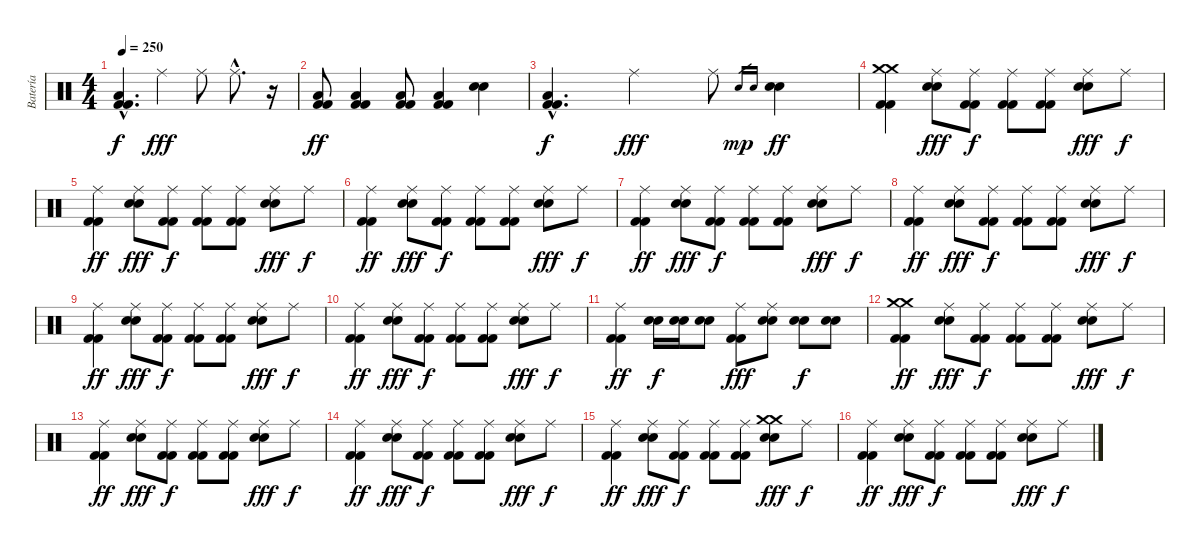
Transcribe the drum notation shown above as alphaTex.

\track ("Batería" "Batería") {instrument percussion}
\staff {score}
\articulation defaults
\ts (4 4)
\tempo 250
\clef neutral
\ks c
("Low Tom (hit)"{hac} "Kick (hit) 2"{hac} "Kick (hit) 2"{hac}).4{d dy f} "Ride (middle)".4{dy fff} "Ride (middle)".8 "Ride (middle)"{hac}.8{d} r.16 |
("Low Tom (hit)" "Kick (hit) 2" "Kick (hit) 2").8{dy ff} ("Low Tom (hit)" "Kick (hit) 2" "Kick (hit) 2").4 ("Low Tom (hit)" "Kick (hit) 2" "Kick (hit) 2").8 ("Low Tom (hit)" "Kick (hit) 2" "Kick (hit) 2").4 ("Electric Snare (hit)" "Electric Snare (hit)").4 |
("Low Tom (hit)"{hac} "Kick (hit) 2"{hac} "Kick (hit) 2"{hac}).4{d dy f} "Ride (middle)".4{dy fff} "Ride (middle)".8 "Electric Snare (hit)".16{gr dy mp} "Electric Snare (hit)".16{gr} ("Electric Snare (hit)" "Electric Snare (hit)").4{dy ff} |
("Crash medium (hit)" "Crash medium (hit)" "Kick (hit) 2" "Kick (hit) 2").4 ("Ride (middle)" "Electric Snare (hit)" "Electric Snare (hit)").8{dy fff} ("Ride (middle)" "Kick (hit) 2" "Kick (hit) 2").8{dy f} ("Ride (middle)" "Kick (hit) 2" "Kick (hit) 2").8 ("Ride (middle)" "Kick (hit) 2" "Kick (hit) 2").8 ("Ride (middle)" "Electric Snare (hit)" "Electric Snare (hit)").8{dy fff} "Ride (middle)".8{dy f} |
("Ride (middle)" "Kick (hit) 2" "Kick (hit) 2").4{dy ff} ("Ride (middle)" "Electric Snare (hit)" "Electric Snare (hit)").8{dy fff} ("Ride (middle)" "Kick (hit) 2" "Kick (hit) 2").8{dy f} ("Ride (middle)" "Kick (hit) 2" "Kick (hit) 2").8 ("Ride (middle)" "Kick (hit) 2" "Kick (hit) 2").8 ("Ride (middle)" "Electric Snare (hit)" "Electric Snare (hit)").8{dy fff} "Ride (middle)".8{dy f} |
("Ride (middle)" "Kick (hit) 2" "Kick (hit) 2").4{dy ff} ("Ride (middle)" "Electric Snare (hit)" "Electric Snare (hit)").8{dy fff} ("Ride (middle)" "Kick (hit) 2" "Kick (hit) 2").8{dy f} ("Ride (middle)" "Kick (hit) 2" "Kick (hit) 2").8 ("Ride (middle)" "Kick (hit) 2" "Kick (hit) 2").8 ("Ride (middle)" "Electric Snare (hit)" "Electric Snare (hit)").8{dy fff} "Ride (middle)".8{dy f} |
("Ride (middle)" "Kick (hit) 2" "Kick (hit) 2").4{dy ff} ("Ride (middle)" "Electric Snare (hit)" "Electric Snare (hit)").8{dy fff} ("Ride (middle)" "Kick (hit) 2" "Kick (hit) 2").8{dy f} ("Ride (middle)" "Kick (hit) 2" "Kick (hit) 2").8 ("Ride (middle)" "Kick (hit) 2" "Kick (hit) 2").8 ("Ride (middle)" "Electric Snare (hit)" "Electric Snare (hit)").8{dy fff} "Ride (middle)".8{dy f} |
("Ride (middle)" "Kick (hit) 2" "Kick (hit) 2").4{dy ff} ("Ride (middle)" "Electric Snare (hit)" "Electric Snare (hit)").8{dy fff} ("Ride (middle)" "Kick (hit) 2" "Kick (hit) 2").8{dy f} ("Ride (middle)" "Kick (hit) 2" "Kick (hit) 2").8 ("Ride (middle)" "Kick (hit) 2" "Kick (hit) 2").8 ("Ride (middle)" "Electric Snare (hit)" "Electric Snare (hit)").8{dy fff} "Ride (middle)".8{dy f} |
("Ride (middle)" "Kick (hit) 2" "Kick (hit) 2").4{dy ff} ("Ride (middle)" "Electric Snare (hit)" "Electric Snare (hit)").8{dy fff} ("Ride (middle)" "Kick (hit) 2" "Kick (hit) 2").8{dy f} ("Ride (middle)" "Kick (hit) 2" "Kick (hit) 2").8 ("Ride (middle)" "Kick (hit) 2" "Kick (hit) 2").8 ("Ride (middle)" "Electric Snare (hit)" "Electric Snare (hit)").8{dy fff} "Ride (middle)".8{dy f} |
("Ride (middle)" "Kick (hit) 2" "Kick (hit) 2").4{dy ff} ("Ride (middle)" "Electric Snare (hit)" "Electric Snare (hit)").8{dy fff} ("Ride (middle)" "Kick (hit) 2" "Kick (hit) 2").8{dy f} ("Ride (middle)" "Kick (hit) 2" "Kick (hit) 2").8 ("Ride (middle)" "Kick (hit) 2" "Kick (hit) 2").8 ("Ride (middle)" "Electric Snare (hit)" "Electric Snare (hit)").8{dy fff} "Ride (middle)".8{dy f} |
("Ride (middle)" "Kick (hit) 2" "Kick (hit) 2").4{dy ff} ("Electric Snare (hit)" "Electric Snare (hit)").16{dy f} ("Electric Snare (hit)" "Electric Snare (hit)").16 ("Electric Snare (hit)" "Electric Snare (hit)").8 ("Ride (middle)" "Kick (hit) 2" "Kick (hit) 2").8{dy fff} ("Ride (middle)" "Electric Snare (hit)" "Electric Snare (hit)").8 ("Electric Snare (hit)" "Electric Snare (hit)").8{dy f} ("Electric Snare (hit)" "Electric Snare (hit)").8 |
("Crash medium (hit)" "Crash medium (hit)" "Kick (hit) 2" "Kick (hit) 2").4{dy ff} ("Ride (middle)" "Electric Snare (hit)" "Electric Snare (hit)").8{dy fff} ("Ride (middle)" "Kick (hit) 2" "Kick (hit) 2").8{dy f} ("Ride (middle)" "Kick (hit) 2" "Kick (hit) 2").8 ("Ride (middle)" "Kick (hit) 2" "Kick (hit) 2").8 ("Ride (middle)" "Electric Snare (hit)" "Electric Snare (hit)").8{dy fff} "Ride (middle)".8{dy f} |
("Ride (middle)" "Kick (hit) 2" "Kick (hit) 2").4{dy ff} ("Ride (middle)" "Electric Snare (hit)" "Electric Snare (hit)").8{dy fff} ("Ride (middle)" "Kick (hit) 2" "Kick (hit) 2").8{dy f} ("Ride (middle)" "Kick (hit) 2" "Kick (hit) 2").8 ("Ride (middle)" "Kick (hit) 2" "Kick (hit) 2").8 ("Ride (middle)" "Electric Snare (hit)" "Electric Snare (hit)").8{dy fff} "Ride (middle)".8{dy f} |
("Ride (middle)" "Kick (hit) 2" "Kick (hit) 2").4{dy ff} ("Ride (middle)" "Electric Snare (hit)" "Electric Snare (hit)").8{dy fff} ("Ride (middle)" "Kick (hit) 2" "Kick (hit) 2").8{dy f} ("Ride (middle)" "Kick (hit) 2" "Kick (hit) 2").8 ("Ride (middle)" "Kick (hit) 2" "Kick (hit) 2").8 ("Ride (middle)" "Electric Snare (hit)" "Electric Snare (hit)").8{dy fff} "Ride (middle)".8{dy f} |
("Ride (middle)" "Kick (hit) 2" "Kick (hit) 2").4{dy ff} ("Ride (middle)" "Electric Snare (hit)" "Electric Snare (hit)").8{dy fff} ("Ride (middle)" "Kick (hit) 2" "Kick (hit) 2").8{dy f} ("Ride (middle)" "Kick (hit) 2" "Kick (hit) 2").8 ("Ride (middle)" "Kick (hit) 2" "Kick (hit) 2").8 ("Crash medium (hit)" "Crash medium (hit)" "Electric Snare (hit)" "Electric Snare (hit)").8{dy fff} "Ride (middle)".8{dy f} |
("Ride (middle)" "Kick (hit) 2" "Kick (hit) 2").4{dy ff} ("Ride (middle)" "Electric Snare (hit)" "Electric Snare (hit)").8{dy fff} ("Ride (middle)" "Kick (hit) 2" "Kick (hit) 2").8{dy f} ("Ride (middle)" "Kick (hit) 2" "Kick (hit) 2").8 ("Ride (middle)" "Kick (hit) 2" "Kick (hit) 2").8 ("Ride (middle)" "Electric Snare (hit)" "Electric Snare (hit)").8{dy fff} "Ride (middle)".8{dy f}
